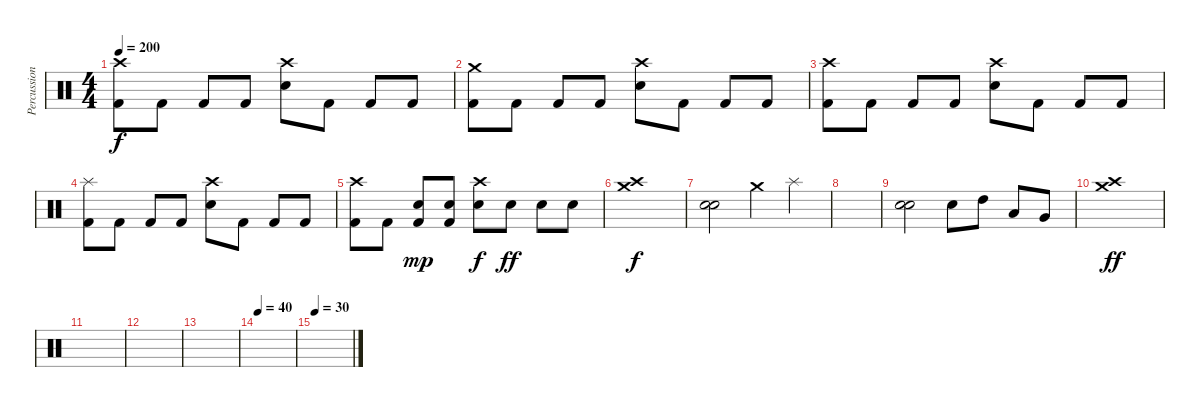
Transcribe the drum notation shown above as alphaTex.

\track ("Percussions" "Percussion") {instrument percussion}
\staff {score}
\articulation defaults
\ts (4 4)
\tempo 200
\clef neutral
\ks c
("Crash high (hit)" "Kick (hit) 2").8{dy f} "Kick (hit) 2".8 "Kick (hit) 2".8 "Kick (hit) 2".8 ("Crash high (hit)" "Electric Snare (hit)").8 "Kick (hit) 2".8 "Kick (hit) 2".8 "Kick (hit) 2".8 |
("Crash medium (hit)" "Kick (hit) 2").8 "Kick (hit) 2".8 "Kick (hit) 2".8 "Kick (hit) 2".8 ("Crash high (hit)" "Electric Snare (hit)").8 "Kick (hit) 2".8 "Kick (hit) 2".8 "Kick (hit) 2".8 |
("Crash high (hit)" "Kick (hit) 2").8 "Kick (hit) 2".8 "Kick (hit) 2".8 "Kick (hit) 2".8 ("Crash high (hit)" "Electric Snare (hit)").8 "Kick (hit) 2".8 "Kick (hit) 2".8 "Kick (hit) 2".8 |
("Splash (hit)" "Kick (hit) 2").8 "Kick (hit) 2".8 "Kick (hit) 2".8 "Kick (hit) 2".8 ("Crash high (hit)" "Electric Snare (hit)").8 "Kick (hit) 2".8 "Kick (hit) 2".8 "Kick (hit) 2".8 |
("Crash high (hit)" "Kick (hit) 2").8 "Kick (hit) 2".8 ("Electric Snare (hit)" "Kick (hit) 2").8{dy mp} ("Electric Snare (hit)" "Kick (hit) 2").8 ("Crash high (hit)" "Electric Snare (hit)").8{dy f} "Electric Snare (hit)".8{dy ff} "Electric Snare (hit)".8 "Electric Snare (hit)".8 |
("Crash high (hit)" "Crash medium (hit)").1{dy f} |
("Electric Snare (hit)" "Electric Snare (hit)").2 "Crash medium (hit)".4 "Splash (hit)".4 |
|
("Electric Snare (hit)" "Electric Snare (hit)").2 "Electric Snare (hit)".8 "High Tom (hit)".8 "Low Tom (hit)".8 "Very Low Tom (hit)".8 |
("Crash medium (hit)" "Crash high (hit)").1{dy ff} |
|
|
|
\tempo 40
|
\tempo 30
